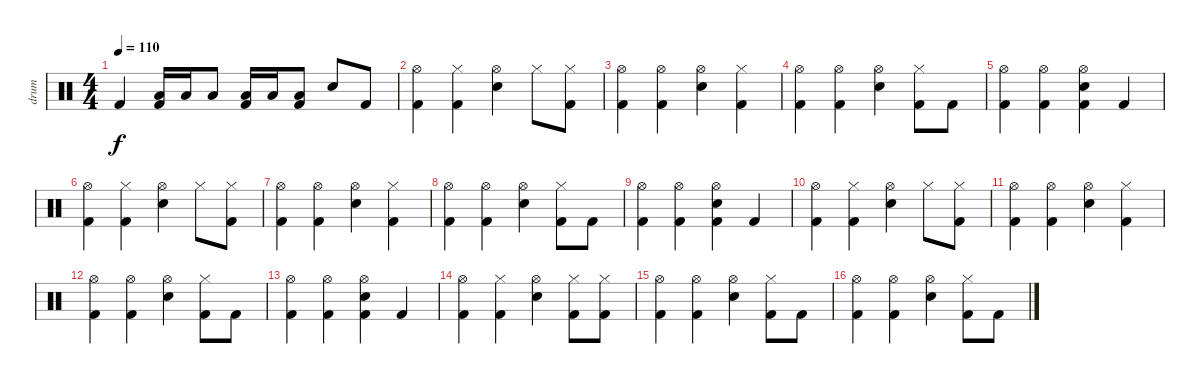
\track ("drum" "drum") {instrument percussion}
\staff {score}
\articulation defaults
\ts (4 4)
\tempo 110
\clef neutral
\ks c "Kick (hit) 2".4{dy f}
("Low Tom (hit)" "Kick (hit) 2").16 "Low Tom (hit)".16 "Low Tom (hit)".8 ("Low Floor Tom (hit)" "Kick (hit) 2").16 "Low Floor Tom (hit)".16 ("Low Floor Tom (hit)" "Kick (hit) 2").8 "Electric Snare (hit)".8 "Kick (hit) 2".8 |
("Hi-Hat (open)" "Kick (hit) 2").4 ("Hi-Hat (closed)" "Kick (hit) 2").4 ("Hi-Hat (open)" "Electric Snare (hit)").4 "Hi-Hat (closed)".8 ("Hi-Hat (closed)" "Kick (hit) 2").8 |
("Hi-Hat (open)" "Kick (hit) 2").4 ("Hi-Hat (open)" "Kick (hit) 2").4 ("Hi-Hat (open)" "Electric Snare (hit)").4 ("Hi-Hat (closed)" "Kick (hit) 2").4 |
("Hi-Hat (open)" "Kick (hit) 2").4 ("Hi-Hat (open)" "Kick (hit) 2").4 ("Hi-Hat (open)" "Electric Snare (hit)").4 ("Hi-Hat (closed)" "Kick (hit) 2").8 "Kick (hit) 2".8 |
("Hi-Hat (open)" "Kick (hit) 2").4 ("Hi-Hat (open)" "Kick (hit) 2").4 ("Hi-Hat (open)" "Electric Snare (hit)" "Kick (hit) 2").4 "Kick (hit) 2".4 |
("Hi-Hat (open)" "Kick (hit) 2").4 ("Hi-Hat (closed)" "Kick (hit) 2").4 ("Hi-Hat (open)" "Electric Snare (hit)").4 "Hi-Hat (closed)".8 ("Hi-Hat (closed)" "Kick (hit) 2").8 |
("Hi-Hat (open)" "Kick (hit) 2").4 ("Hi-Hat (open)" "Kick (hit) 2").4 ("Hi-Hat (open)" "Electric Snare (hit)").4 ("Hi-Hat (closed)" "Kick (hit) 2").4 |
("Hi-Hat (open)" "Kick (hit) 2").4 ("Hi-Hat (open)" "Kick (hit) 2").4 ("Hi-Hat (open)" "Electric Snare (hit)").4 ("Hi-Hat (closed)" "Kick (hit) 2").8 "Kick (hit) 2".8 |
("Hi-Hat (open)" "Kick (hit) 2").4 ("Hi-Hat (open)" "Kick (hit) 2").4 ("Hi-Hat (open)" "Electric Snare (hit)" "Kick (hit) 2").4 "Kick (hit) 2".4 |
("Hi-Hat (open)" "Kick (hit) 2").4 ("Hi-Hat (closed)" "Kick (hit) 2").4 ("Hi-Hat (open)" "Electric Snare (hit)").4 "Hi-Hat (closed)".8 ("Hi-Hat (closed)" "Kick (hit) 2").8 |
("Hi-Hat (open)" "Kick (hit) 2").4 ("Hi-Hat (open)" "Kick (hit) 2").4 ("Hi-Hat (open)" "Electric Snare (hit)").4 ("Hi-Hat (closed)" "Kick (hit) 2").4 |
("Hi-Hat (open)" "Kick (hit) 2").4 ("Hi-Hat (open)" "Kick (hit) 2").4 ("Hi-Hat (open)" "Electric Snare (hit)").4 ("Hi-Hat (closed)" "Kick (hit) 2").8 "Kick (hit) 2".8 |
("Hi-Hat (open)" "Kick (hit) 2").4 ("Hi-Hat (open)" "Kick (hit) 2").4 ("Hi-Hat (open)" "Electric Snare (hit)" "Kick (hit) 2").4 "Kick (hit) 2".4 |
("Hi-Hat (open)" "Kick (hit) 2").4 ("Hi-Hat (closed)" "Kick (hit) 2").4 ("Hi-Hat (open)" "Electric Snare (hit)").4 ("Hi-Hat (closed)" "Kick (hit) 2").8 ("Hi-Hat (closed)" "Kick (hit) 2").8 |
("Hi-Hat (open)" "Kick (hit) 2").4 ("Hi-Hat (open)" "Kick (hit) 2").4 ("Hi-Hat (open)" "Electric Snare (hit)").4 ("Hi-Hat (closed)" "Kick (hit) 2").8 "Kick (hit) 2".8 |
("Hi-Hat (open)" "Kick (hit) 2").4 ("Hi-Hat (open)" "Kick (hit) 2").4 ("Hi-Hat (open)" "Electric Snare (hit)").4 ("Hi-Hat (closed)" "Kick (hit) 2").8 "Kick (hit) 2".8
